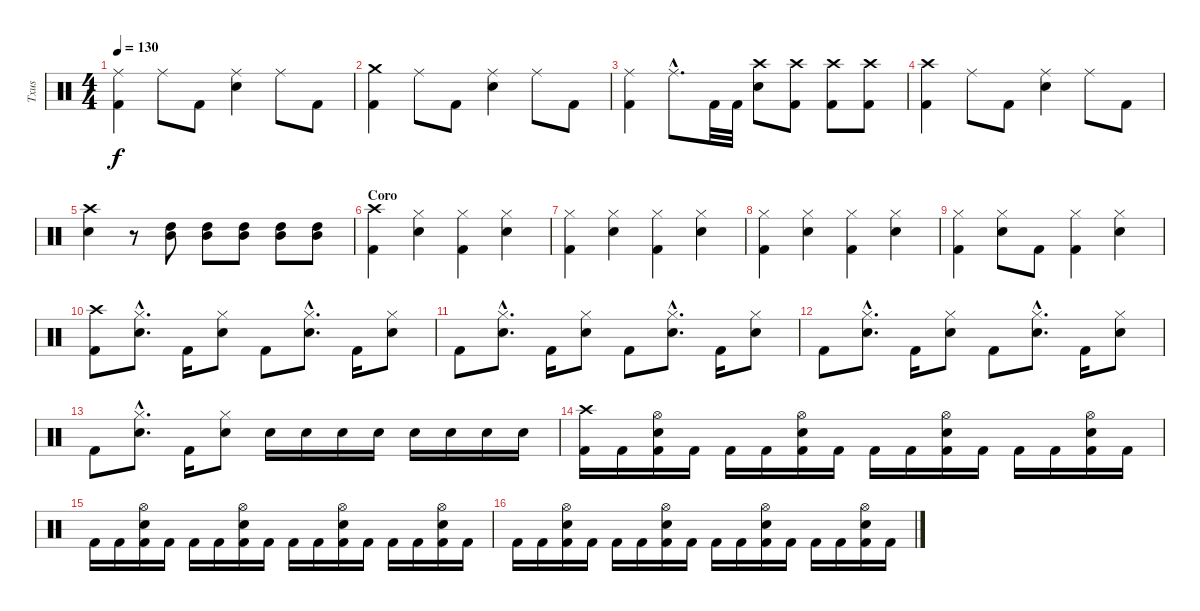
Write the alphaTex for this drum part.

\track ("Txus" "Txus") {instrument percussion}
\staff {score}
\articulation defaults
\ts (4 4)
\tempo 130
\clef neutral
\ks c
("Kick (hit) 2" "Ride (middle)").4{dy f} "Ride (middle)".8 "Kick (hit) 2".8 ("Electric Snare (hit)" "Ride (middle)").4 "Ride (middle)".8 "Kick (hit) 2".8 |
("Kick (hit) 2" "Crash medium (hit)").4 "Ride (middle)".8 "Kick (hit) 2".8 ("Electric Snare (hit)" "Ride (middle)").4 "Ride (middle)".8 "Kick (hit) 2".8 |
("Kick (hit) 2" "Ride (middle)").4 "Ride (middle)"{hac}.8{d} "Kick (hit) 2".32 "Kick (hit) 2".32 ("Electric Snare (hit)" "Crash high (hit)").8 ("Kick (hit) 2" "Crash high (hit)").8 ("Kick (hit) 2" "Crash high (hit)").8 ("Kick (hit) 2" "Crash high (hit)").8 |
("Kick (hit) 2" "Crash high (hit)").4 "Ride (middle)".8 "Kick (hit) 2".8 ("Electric Snare (hit)" "Ride (middle)").4 "Ride (middle)".8 "Kick (hit) 2".8 |
("Electric Snare (hit)" "Crash high (hit)").4 r.8 ("High Tom (hit)" "Mid Tom (hit)").8 ("High Tom (hit)" "Mid Tom (hit)").8 ("High Tom (hit)" "Mid Tom (hit)").8 ("High Tom (hit)" "Mid Tom (hit)").8 ("High Tom (hit)" "Mid Tom (hit)").8 |
\section ("" "Coro")
("Kick (hit) 2" "Crash high (hit)").4 ("Electric Snare (hit)" "Hi-Hat (closed)").4 ("Kick (hit) 2" "Hi-Hat (closed)").4 ("Electric Snare (hit)" "Hi-Hat (closed)").4 |
("Kick (hit) 2" "Hi-Hat (closed)").4 ("Electric Snare (hit)" "Hi-Hat (closed)").4 ("Kick (hit) 2" "Hi-Hat (closed)").4 ("Electric Snare (hit)" "Hi-Hat (closed)").4 |
("Kick (hit) 2" "Hi-Hat (closed)").4 ("Electric Snare (hit)" "Hi-Hat (closed)").4 ("Kick (hit) 2" "Hi-Hat (closed)").4 ("Electric Snare (hit)" "Hi-Hat (closed)").4 |
("Kick (hit) 2" "Hi-Hat (closed)").4 ("Electric Snare (hit)" "Hi-Hat (closed)").8 "Kick (hit) 2".8 ("Kick (hit) 2" "Hi-Hat (closed)").4 ("Electric Snare (hit)" "Hi-Hat (closed)").4 |
("Kick (hit) 2" "Crash high (hit)").8 ("Electric Snare (hit)"{hac} "Hi-Hat (closed)"{hac}).8{d} "Kick (hit) 2".16 ("Electric Snare (hit)" "Hi-Hat (closed)").8 "Kick (hit) 2".8 ("Electric Snare (hit)"{hac} "Hi-Hat (closed)"{hac}).8{d} "Kick (hit) 2".16 ("Electric Snare (hit)" "Hi-Hat (closed)").8 |
"Kick (hit) 2".8 ("Electric Snare (hit)"{hac} "Hi-Hat (closed)"{hac}).8{d} "Kick (hit) 2".16 ("Electric Snare (hit)" "Hi-Hat (closed)").8 "Kick (hit) 2".8 ("Electric Snare (hit)"{hac} "Hi-Hat (closed)"{hac}).8{d} "Kick (hit) 2".16 ("Electric Snare (hit)" "Hi-Hat (closed)").8 |
"Kick (hit) 2".8 ("Electric Snare (hit)"{hac} "Hi-Hat (closed)"{hac}).8{d} "Kick (hit) 2".16 ("Electric Snare (hit)" "Hi-Hat (closed)").8 "Kick (hit) 2".8 ("Electric Snare (hit)"{hac} "Hi-Hat (closed)"{hac}).8{d} "Kick (hit) 2".16 ("Electric Snare (hit)" "Hi-Hat (closed)").8 |
"Kick (hit) 2".8 ("Electric Snare (hit)"{hac} "Hi-Hat (closed)"{hac}).8{d} "Kick (hit) 2".16 ("Electric Snare (hit)" "Hi-Hat (closed)").8 "Electric Snare (hit)".16 "Electric Snare (hit)".16 "Electric Snare (hit)".16 "Electric Snare (hit)".16 "Electric Snare (hit)".16 "Electric Snare (hit)".16 "Electric Snare (hit)".16 "Electric Snare (hit)".16 |
("Kick (hit) 2" "Crash high (hit)").16 "Kick (hit) 2".16 ("Kick (hit) 2" "Electric Snare (hit)" "Hi-Hat (open)").16 "Kick (hit) 2".16 "Kick (hit) 2".16 "Kick (hit) 2".16 ("Kick (hit) 2" "Electric Snare (hit)" "Hi-Hat (open)").16 "Kick (hit) 2".16 "Kick (hit) 2".16 "Kick (hit) 2".16 ("Kick (hit) 2" "Electric Snare (hit)" "Hi-Hat (open)").16 "Kick (hit) 2".16 "Kick (hit) 2".16 "Kick (hit) 2".16 ("Kick (hit) 2" "Electric Snare (hit)" "Hi-Hat (open)").16 "Kick (hit) 2".16 |
"Kick (hit) 2".16 "Kick (hit) 2".16 ("Kick (hit) 2" "Electric Snare (hit)" "Hi-Hat (open)").16 "Kick (hit) 2".16 "Kick (hit) 2".16 "Kick (hit) 2".16 ("Kick (hit) 2" "Electric Snare (hit)" "Hi-Hat (open)").16 "Kick (hit) 2".16 "Kick (hit) 2".16 "Kick (hit) 2".16 ("Kick (hit) 2" "Electric Snare (hit)" "Hi-Hat (open)").16 "Kick (hit) 2".16 "Kick (hit) 2".16 "Kick (hit) 2".16 ("Kick (hit) 2" "Electric Snare (hit)" "Hi-Hat (open)").16 "Kick (hit) 2".16 |
"Kick (hit) 2".16 "Kick (hit) 2".16 ("Kick (hit) 2" "Electric Snare (hit)" "Hi-Hat (open)").16 "Kick (hit) 2".16 "Kick (hit) 2".16 "Kick (hit) 2".16 ("Kick (hit) 2" "Electric Snare (hit)" "Hi-Hat (open)").16 "Kick (hit) 2".16 "Kick (hit) 2".16 "Kick (hit) 2".16 ("Kick (hit) 2" "Electric Snare (hit)" "Hi-Hat (open)").16 "Kick (hit) 2".16 "Kick (hit) 2".16 "Kick (hit) 2".16 ("Kick (hit) 2" "Electric Snare (hit)" "Hi-Hat (open)").16 "Kick (hit) 2".16
